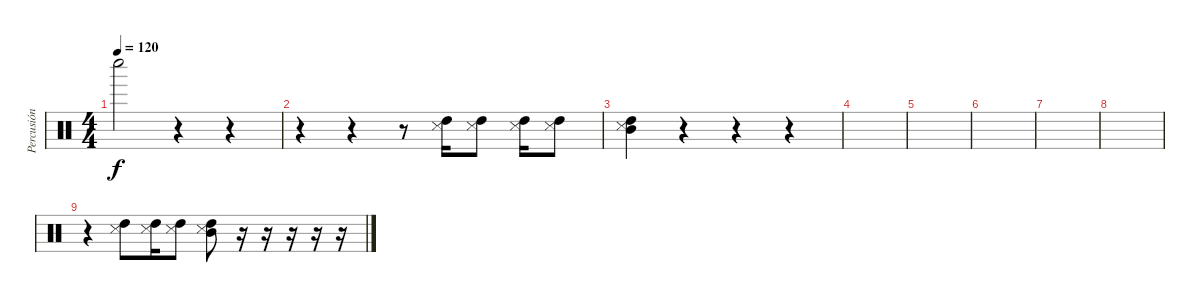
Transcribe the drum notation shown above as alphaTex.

\track ("Percusión" "Percusión") {instrument percussion}
\staff {score}
\articulation defaults
\ts (4 4)
\tempo 120
\clef neutral
\ks c "Whistle low (hit)".2{dy f}
r.4 r.4 |
r.4 r.4 r.8 ("Snare (side stick) 3" "High Tom (hit)").16 ("Snare (side stick) 3" "High Tom (hit)").8 ("Snare (side stick) 3" "High Tom (hit)").16 ("Snare (side stick) 3" "High Tom (hit)").8 |
("Snare (side stick) 3" "Mid Tom (hit)" "High Tom (hit)").4 r.4 r.4 r.4 |
|
|
|
|
|
r.4 ("Snare (side stick) 3" "High Tom (hit)").8 ("Snare (side stick) 3" "High Tom (hit)").16 ("Snare (side stick) 3" "High Tom (hit)").8 ("Snare (side stick) 3" "Mid Tom (hit)" "High Tom (hit)").8 r.16 r.16 r.16 r.16 r.16
